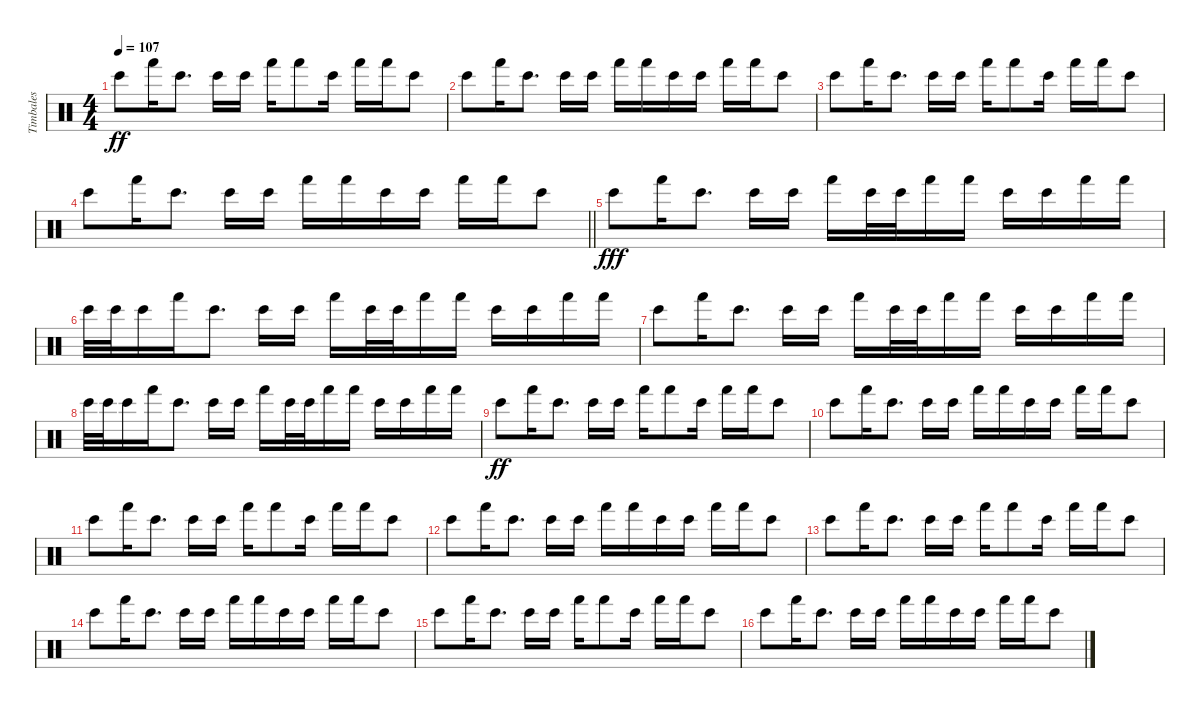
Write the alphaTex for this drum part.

\track ("Timbales" "Timbales") {instrument percussion}
\staff {score}
\articulation defaults
\ts (4 4)
\tempo 107
\clef neutral
\ks c "Bongo High (hit)".8{dy ff} "Hand (hit)".16 "Bongo High (hit)".8{d} "Bongo High (hit)".16 "Bongo High (hit)".16 "Hand (hit)".16 "Hand (hit)".8 "Bongo High (hit)".16 "Hand (hit)".16 "Hand (hit)".16 "Bongo High (hit)".8
|
"Bongo High (hit)".8 "Hand (hit)".16 "Bongo High (hit)".8{d} "Bongo High (hit)".16 "Bongo High (hit)".16 "Hand (hit)".16 "Hand (hit)".16 "Bongo High (hit)".16 "Bongo High (hit)".16 "Hand (hit)".16 "Hand (hit)".16 "Bongo High (hit)".8 |
"Bongo High (hit)".8 "Hand (hit)".16 "Bongo High (hit)".8{d} "Bongo High (hit)".16 "Bongo High (hit)".16 "Hand (hit)".16 "Hand (hit)".8 "Bongo High (hit)".16 "Hand (hit)".16 "Hand (hit)".16 "Bongo High (hit)".8 |
\barLineRight lightlight "Bongo High (hit)".8 "Hand (hit)".16 "Bongo High (hit)".8{d} "Bongo High (hit)".16 "Bongo High (hit)".16 "Hand (hit)".16 "Hand (hit)".16 "Bongo High (hit)".16 "Bongo High (hit)".16 "Hand (hit)".16 "Hand (hit)".16 "Bongo High (hit)".8
|
"Bongo High (hit)".8{dy fff} "Hand (hit)".16 "Bongo High (hit)".8{d} "Bongo High (hit)".16 "Bongo High (hit)".16 "Hand (hit)".16 "Bongo High (hit)".32 "Bongo High (hit)".32 "Hand (hit)".16 "Hand (hit)".16 "Bongo High (hit)".16 "Bongo High (hit)".16 "Hand (hit)".16 "Hand (hit)".16 |
"Bongo High (hit)".32 "Bongo High (hit)".32 "Bongo High (hit)".16 "Hand (hit)".16 "Bongo High (hit)".8{d} "Bongo High (hit)".16 "Bongo High (hit)".16 "Hand (hit)".16 "Bongo High (hit)".32 "Bongo High (hit)".32 "Hand (hit)".16 "Hand (hit)".16 "Bongo High (hit)".16 "Bongo High (hit)".16 "Hand (hit)".16 "Hand (hit)".16 |
"Bongo High (hit)".8 "Hand (hit)".16 "Bongo High (hit)".8{d} "Bongo High (hit)".16 "Bongo High (hit)".16 "Hand (hit)".16 "Bongo High (hit)".32 "Bongo High (hit)".32 "Hand (hit)".16 "Hand (hit)".16 "Bongo High (hit)".16 "Bongo High (hit)".16 "Hand (hit)".16 "Hand (hit)".16 |
"Bongo High (hit)".32 "Bongo High (hit)".32 "Bongo High (hit)".16 "Hand (hit)".16 "Bongo High (hit)".8{d} "Bongo High (hit)".16 "Bongo High (hit)".16 "Hand (hit)".16 "Bongo High (hit)".32 "Bongo High (hit)".32 "Hand (hit)".16 "Hand (hit)".16 "Bongo High (hit)".16 "Bongo High (hit)".16 "Hand (hit)".16 "Hand (hit)".16 |
"Bongo High (hit)".8{dy ff} "Hand (hit)".16 "Bongo High (hit)".8{d} "Bongo High (hit)".16 "Bongo High (hit)".16 "Hand (hit)".16 "Hand (hit)".8 "Bongo High (hit)".16 "Hand (hit)".16 "Hand (hit)".16 "Bongo High (hit)".8 |
"Bongo High (hit)".8 "Hand (hit)".16 "Bongo High (hit)".8{d} "Bongo High (hit)".16 "Bongo High (hit)".16 "Hand (hit)".16 "Hand (hit)".16 "Bongo High (hit)".16 "Bongo High (hit)".16 "Hand (hit)".16 "Hand (hit)".16 "Bongo High (hit)".8 |
"Bongo High (hit)".8 "Hand (hit)".16 "Bongo High (hit)".8{d} "Bongo High (hit)".16 "Bongo High (hit)".16 "Hand (hit)".16 "Hand (hit)".8 "Bongo High (hit)".16 "Hand (hit)".16 "Hand (hit)".16 "Bongo High (hit)".8 |
"Bongo High (hit)".8 "Hand (hit)".16 "Bongo High (hit)".8{d} "Bongo High (hit)".16 "Bongo High (hit)".16 "Hand (hit)".16 "Hand (hit)".16 "Bongo High (hit)".16 "Bongo High (hit)".16 "Hand (hit)".16 "Hand (hit)".16 "Bongo High (hit)".8 |
"Bongo High (hit)".8 "Hand (hit)".16 "Bongo High (hit)".8{d} "Bongo High (hit)".16 "Bongo High (hit)".16 "Hand (hit)".16 "Hand (hit)".8 "Bongo High (hit)".16 "Hand (hit)".16 "Hand (hit)".16 "Bongo High (hit)".8 |
"Bongo High (hit)".8 "Hand (hit)".16 "Bongo High (hit)".8{d} "Bongo High (hit)".16 "Bongo High (hit)".16 "Hand (hit)".16 "Hand (hit)".16 "Bongo High (hit)".16 "Bongo High (hit)".16 "Hand (hit)".16 "Hand (hit)".16 "Bongo High (hit)".8 |
"Bongo High (hit)".8 "Hand (hit)".16 "Bongo High (hit)".8{d} "Bongo High (hit)".16 "Bongo High (hit)".16 "Hand (hit)".16 "Hand (hit)".8 "Bongo High (hit)".16 "Hand (hit)".16 "Hand (hit)".16 "Bongo High (hit)".8 |
"Bongo High (hit)".8 "Hand (hit)".16 "Bongo High (hit)".8{d} "Bongo High (hit)".16 "Bongo High (hit)".16 "Hand (hit)".16 "Hand (hit)".16 "Bongo High (hit)".16 "Bongo High (hit)".16 "Hand (hit)".16 "Hand (hit)".16 "Bongo High (hit)".8
